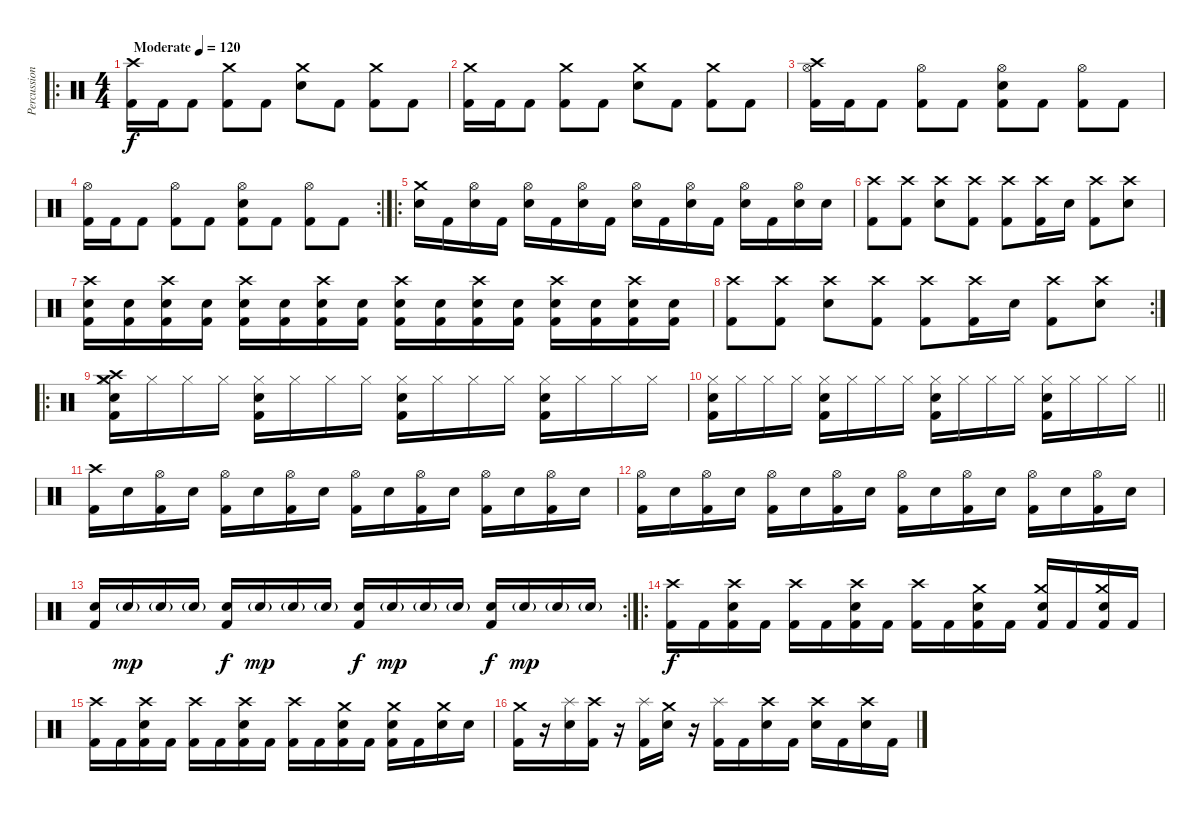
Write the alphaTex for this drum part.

\track ("Percussions" "Percussion") {instrument percussion}
\staff {score}
\articulation defaults
\ro
\ts (4 4)
\tempo (120 "Moderate")
\clef neutral
\ks c
("Crash high (hit)" "Kick (hit) 2").16{dy f} "Kick (hit) 2".16 "Kick (hit) 2".8 ("Crash medium (hit)" "Kick (hit) 2").8 "Kick (hit) 2".8 ("Crash medium (hit)" "Electric Snare (hit)").8 "Kick (hit) 2".8 ("Crash medium (hit)" "Kick (hit) 2").8 "Kick (hit) 2".8 |
("Crash medium (hit)" "Kick (hit) 2").16 "Kick (hit) 2".16 "Kick (hit) 2".8 ("Crash medium (hit)" "Kick (hit) 2").8 "Kick (hit) 2".8 ("Crash medium (hit)" "Electric Snare (hit)").8 "Kick (hit) 2".8 ("Crash medium (hit)" "Kick (hit) 2").8 "Kick (hit) 2".8 |
("Crash high (hit)" "Hi-Hat (open)" "Kick (hit) 2").16 "Kick (hit) 2".16 "Kick (hit) 2".8 ("Hi-Hat (open)" "Kick (hit) 2").8 "Kick (hit) 2".8 ("Hi-Hat (open)" "Electric Snare (hit)" "Kick (hit) 2").8 "Kick (hit) 2".8 ("Hi-Hat (open)" "Kick (hit) 2").8 "Kick (hit) 2".8 |
\rc 2
("Hi-Hat (open)" "Kick (hit) 2").16 "Kick (hit) 2".16 "Kick (hit) 2".8 ("Hi-Hat (open)" "Kick (hit) 2").8 "Kick (hit) 2".8 ("Hi-Hat (open)" "Electric Snare (hit)" "Kick (hit) 2").8 "Kick (hit) 2".8 ("Hi-Hat (open)" "Kick (hit) 2").8 "Kick (hit) 2".8 |
\ro
("Crash medium (hit)" "Electric Snare (hit)").16 "Kick (hit) 2".16 ("Hi-Hat (open)" "Electric Snare (hit)").16 "Kick (hit) 2".16 ("Hi-Hat (open)" "Electric Snare (hit)").16 "Kick (hit) 2".16 ("Hi-Hat (open)" "Electric Snare (hit)").16 "Kick (hit) 2".16 ("Hi-Hat (open)" "Electric Snare (hit)").16 "Kick (hit) 2".16 ("Hi-Hat (open)" "Electric Snare (hit)").16 "Kick (hit) 2".16 ("Hi-Hat (open)" "Electric Snare (hit)").16 "Kick (hit) 2".16 ("Hi-Hat (open)" "Electric Snare (hit)").16 "Electric Snare (hit)".16 |
("Crash high (hit)" "Kick (hit) 2").8 ("Crash high (hit)" "Kick (hit) 2").8 ("Crash high (hit)" "Electric Snare (hit)").8 ("Crash high (hit)" "Kick (hit) 2").8 ("Crash high (hit)" "Kick (hit) 2").8 ("Crash high (hit)" "Kick (hit) 2").16 "Electric Snare (hit)".16 ("Crash high (hit)" "Kick (hit) 2").8 ("Crash high (hit)" "Electric Snare (hit)").8 |
("Crash high (hit)" "Electric Snare (hit)" "Kick (hit) 2").16 ("Electric Snare (hit)" "Kick (hit) 2").16 ("Crash high (hit)" "Electric Snare (hit)" "Kick (hit) 2").16 ("Electric Snare (hit)" "Kick (hit) 2").16 ("Crash high (hit)" "Electric Snare (hit)" "Kick (hit) 2").16 ("Electric Snare (hit)" "Kick (hit) 2").16 ("Crash high (hit)" "Electric Snare (hit)" "Kick (hit) 2").16 ("Electric Snare (hit)" "Kick (hit) 2").16 ("Crash high (hit)" "Electric Snare (hit)" "Kick (hit) 2").16 ("Electric Snare (hit)" "Kick (hit) 2").16 ("Crash high (hit)" "Electric Snare (hit)" "Kick (hit) 2").16 ("Electric Snare (hit)" "Kick (hit) 2").16 ("Crash high (hit)" "Electric Snare (hit)" "Kick (hit) 2").16 ("Electric Snare (hit)" "Kick (hit) 2").16 ("Crash high (hit)" "Electric Snare (hit)" "Kick (hit) 2").16 ("Electric Snare (hit)" "Kick (hit) 2").16 |
\rc 2
("Crash high (hit)" "Kick (hit) 2").8 ("Crash high (hit)" "Kick (hit) 2").8 ("Crash high (hit)" "Electric Snare (hit)").8 ("Crash high (hit)" "Kick (hit) 2").8 ("Crash high (hit)" "Kick (hit) 2").8 ("Crash high (hit)" "Kick (hit) 2").16 "Electric Snare (hit)".16 ("Crash high (hit)" "Kick (hit) 2").8 ("Crash high (hit)" "Electric Snare (hit)").8 |
\ro
("Crash high (hit)" "Electric Snare (hit)" "Hi-Hat (closed)" "Crash medium (hit)" "Kick (hit) 2").16 "Hi-Hat (closed)".16 "Hi-Hat (closed)".16 "Hi-Hat (closed)".16 ("Electric Snare (hit)" "Hi-Hat (closed)" "Kick (hit) 2").16 "Hi-Hat (closed)".16 "Hi-Hat (closed)".16 "Hi-Hat (closed)".16 ("Electric Snare (hit)" "Hi-Hat (closed)" "Kick (hit) 2").16 "Hi-Hat (closed)".16 "Hi-Hat (closed)".16 "Hi-Hat (closed)".16 ("Electric Snare (hit)" "Hi-Hat (closed)" "Kick (hit) 2").16 "Hi-Hat (closed)".16 "Hi-Hat (closed)".16 "Hi-Hat (closed)".16 |
\barLineRight lightlight
("Electric Snare (hit)" "Hi-Hat (closed)" "Kick (hit) 2").16 "Hi-Hat (closed)".16 "Hi-Hat (closed)".16 "Hi-Hat (closed)".16 ("Electric Snare (hit)" "Hi-Hat (closed)" "Kick (hit) 2").16 "Hi-Hat (closed)".16 "Hi-Hat (closed)".16 "Hi-Hat (closed)".16 ("Electric Snare (hit)" "Hi-Hat (closed)" "Kick (hit) 2").16 "Hi-Hat (closed)".16 "Hi-Hat (closed)".16 "Hi-Hat (closed)".16 ("Electric Snare (hit)" "Hi-Hat (closed)" "Kick (hit) 2").16 "Hi-Hat (closed)".16 "Hi-Hat (closed)".16 "Hi-Hat (closed)".16 |
("Crash high (hit)" "Kick (hit) 2").16 "Electric Snare (hit)".16 ("Hi-Hat (open)" "Kick (hit) 2").16 "Electric Snare (hit)".16 ("Hi-Hat (open)" "Kick (hit) 2").16 "Electric Snare (hit)".16 ("Hi-Hat (open)" "Kick (hit) 2").16 "Electric Snare (hit)".16 ("Hi-Hat (open)" "Kick (hit) 2").16 "Electric Snare (hit)".16 ("Hi-Hat (open)" "Kick (hit) 2").16 "Electric Snare (hit)".16 ("Hi-Hat (open)" "Kick (hit) 2").16 "Electric Snare (hit)".16 ("Hi-Hat (open)" "Kick (hit) 2").16 "Electric Snare (hit)".16 |
("Hi-Hat (open)" "Kick (hit) 2").16 "Electric Snare (hit)".16 ("Hi-Hat (open)" "Kick (hit) 2").16 "Electric Snare (hit)".16 ("Hi-Hat (open)" "Kick (hit) 2").16 "Electric Snare (hit)".16 ("Hi-Hat (open)" "Kick (hit) 2").16 "Electric Snare (hit)".16 ("Hi-Hat (open)" "Kick (hit) 2").16 "Electric Snare (hit)".16 ("Hi-Hat (open)" "Kick (hit) 2").16 "Electric Snare (hit)".16 ("Hi-Hat (open)" "Kick (hit) 2").16 "Electric Snare (hit)".16 ("Hi-Hat (open)" "Kick (hit) 2").16 "Electric Snare (hit)".16 |
\rc 2
("Electric Snare (hit)" "Kick (hit) 2").16 "Electric Snare (hit)"{g}.16{dy mp} "Electric Snare (hit)"{g}.16 "Electric Snare (hit)"{g}.16 ("Electric Snare (hit)" "Kick (hit) 2").16{dy f} "Electric Snare (hit)"{g}.16{dy mp} "Electric Snare (hit)"{g}.16 "Electric Snare (hit)"{g}.16 ("Electric Snare (hit)" "Kick (hit) 2").16{dy f} "Electric Snare (hit)"{g}.16{dy mp} "Electric Snare (hit)"{g}.16 "Electric Snare (hit)"{g}.16 ("Electric Snare (hit)" "Kick (hit) 2").16{dy f} "Electric Snare (hit)"{g}.16{dy mp} "Electric Snare (hit)"{g}.16 "Electric Snare (hit)"{g}.16 |
\ro
("Crash high (hit)" "Kick (hit) 2").16{dy f} "Kick (hit) 2".16 ("Crash high (hit)" "Electric Snare (hit)" "Kick (hit) 2").16 "Kick (hit) 2".16 ("Crash high (hit)" "Kick (hit) 2").16 "Kick (hit) 2".16 ("Crash high (hit)" "Electric Snare (hit)" "Kick (hit) 2").16 "Kick (hit) 2".16 ("Crash high (hit)" "Kick (hit) 2").16 "Kick (hit) 2".16 ("Crash medium (hit)" "Electric Snare (hit)" "Kick (hit) 2").16 "Kick (hit) 2".16 ("Crash medium (hit)" "Electric Snare (hit)" "Kick (hit) 2").16 "Kick (hit) 2".16 ("Crash medium (hit)" "Electric Snare (hit)" "Kick (hit) 2").16 "Kick (hit) 2".16 |
("Crash high (hit)" "Kick (hit) 2").16 "Kick (hit) 2".16 ("Crash high (hit)" "Electric Snare (hit)" "Kick (hit) 2").16 "Kick (hit) 2".16 ("Crash high (hit)" "Kick (hit) 2").16 "Kick (hit) 2".16 ("Crash high (hit)" "Electric Snare (hit)" "Kick (hit) 2").16 "Kick (hit) 2".16 ("Crash high (hit)" "Kick (hit) 2").16 "Kick (hit) 2".16 ("Crash medium (hit)" "Electric Snare (hit)" "Kick (hit) 2").16 "Kick (hit) 2".16 ("Crash medium (hit)" "Electric Snare (hit)" "Kick (hit) 2").16 "Kick (hit) 2".16 ("Crash medium (hit)" "Electric Snare (hit)").16 "Electric Snare (hit)".16 |
("Crash medium (hit)" "Kick (hit) 2").16 r.16 ("Splash (hit)" "Electric Snare (hit)").16 ("Crash high (hit)" "Kick (hit) 2").16 r.16 ("Splash (hit)" "Kick (hit) 2").16 ("Crash medium (hit)" "Electric Snare (hit)").16 r.16 ("Splash (hit)" "Kick (hit) 2").16 "Kick (hit) 2".16 ("Crash high (hit)" "Electric Snare (hit)").16 "Kick (hit) 2".16 ("Crash high (hit)" "Electric Snare (hit)").16 "Kick (hit) 2".16 ("Crash high (hit)" "Electric Snare (hit)").16 "Kick (hit) 2".16
